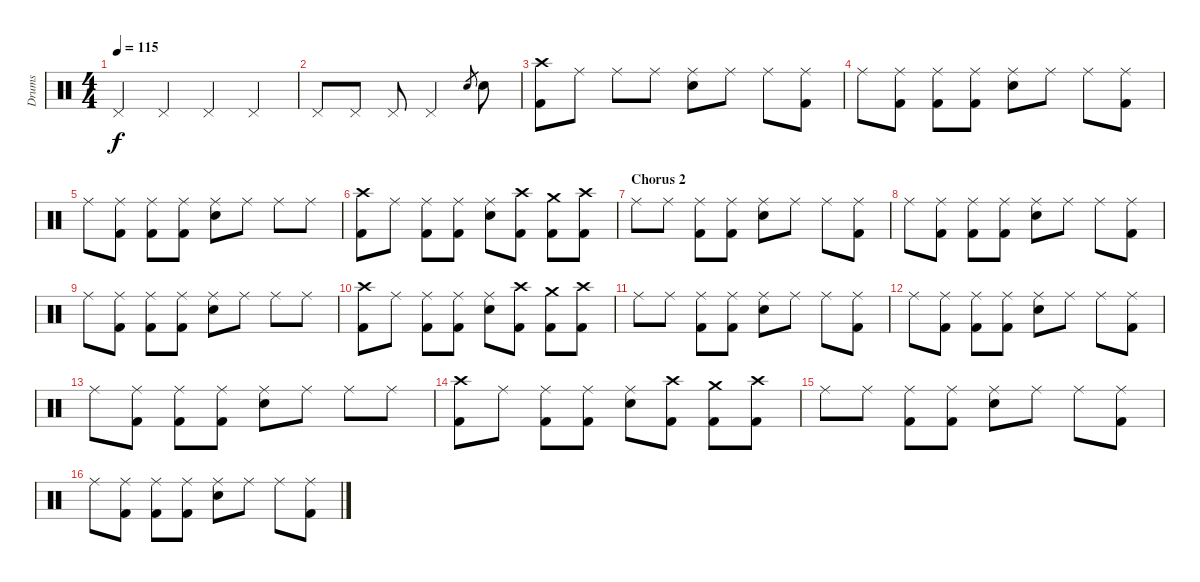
\track ("Drums" "Drums") {instrument percussion}
\staff {score}
\articulation defaults
\ts (4 4)
\tempo 115
\clef neutral
\ks c "Pedal Hi-Hat (hit)".4{dy f} "Pedal Hi-Hat (hit)".4 "Pedal Hi-Hat (hit)".4 "Pedal Hi-Hat (hit)".4
|
"Pedal Hi-Hat (hit)".8 "Pedal Hi-Hat (hit)".8 "Pedal Hi-Hat (hit)".8 "Pedal Hi-Hat (hit)".2 "Snare (hit) 2".8{gr} "Snare (hit) 2".8 |
("Crash high (hit)" "Kick (hit) 2").8 "Ride (middle)".8 "Ride (middle)".8 "Ride (middle)".8 ("Ride (middle)" "Snare (hit) 2").8 "Ride (middle)".8 "Ride (middle)".8 ("Ride (middle)" "Kick (hit) 2").8 |
"Ride (middle)".8 ("Ride (middle)" "Kick (hit) 2").8 ("Ride (middle)" "Kick (hit) 2").8 ("Ride (middle)" "Kick (hit) 2").8 ("Ride (middle)" "Snare (hit) 2").8 "Ride (middle)".8 "Ride (middle)".8 ("Ride (middle)" "Kick (hit) 2").8 |
"Ride (middle)".8 ("Ride (middle)" "Kick (hit) 2").8 ("Ride (middle)" "Kick (hit) 2").8 ("Ride (middle)" "Kick (hit) 2").8 ("Ride (middle)" "Snare (hit) 2").8 "Ride (middle)".8 "Ride (middle)".8 "Ride (middle)".8 |
("Crash high (hit)" "Kick (hit) 2").8 "Ride (middle)".8 ("Ride (middle)" "Kick (hit) 2").8 ("Ride (middle)" "Kick (hit) 2").8 ("Ride (middle)" "Snare (hit) 2").8 ("Crash high (hit)" "Kick (hit) 2").8 ("Crash medium (hit)" "Kick (hit) 2").8 ("Crash high (hit)" "Kick (hit) 2").8 |
\section ("" "Chorus 2")
"Ride (middle)".8 "Ride (middle)".8 ("Ride (middle)" "Kick (hit) 2").8 ("Ride (middle)" "Kick (hit) 2").8 ("Ride (middle)" "Snare (hit) 2").8 "Ride (middle)".8 "Ride (middle)".8 ("Ride (middle)" "Kick (hit) 2").8 |
"Ride (middle)".8 ("Ride (middle)" "Kick (hit) 2").8 ("Ride (middle)" "Kick (hit) 2").8 ("Ride (middle)" "Kick (hit) 2").8 ("Ride (middle)" "Snare (hit) 2").8 "Ride (middle)".8 "Ride (middle)".8 ("Ride (middle)" "Kick (hit) 2").8 |
"Ride (middle)".8 ("Ride (middle)" "Kick (hit) 2").8 ("Ride (middle)" "Kick (hit) 2").8 ("Ride (middle)" "Kick (hit) 2").8 ("Ride (middle)" "Snare (hit) 2").8 "Ride (middle)".8 "Ride (middle)".8 "Ride (middle)".8 |
("Crash high (hit)" "Kick (hit) 2").8 "Ride (middle)".8 ("Ride (middle)" "Kick (hit) 2").8 ("Ride (middle)" "Kick (hit) 2").8 ("Ride (middle)" "Snare (hit) 2").8 ("Crash high (hit)" "Kick (hit) 2").8 ("Crash medium (hit)" "Kick (hit) 2").8 ("Crash high (hit)" "Kick (hit) 2").8 |
"Ride (middle)".8 "Ride (middle)".8 ("Ride (middle)" "Kick (hit) 2").8 ("Ride (middle)" "Kick (hit) 2").8 ("Ride (middle)" "Snare (hit) 2").8 "Ride (middle)".8 "Ride (middle)".8 ("Ride (middle)" "Kick (hit) 2").8 |
"Ride (middle)".8 ("Ride (middle)" "Kick (hit) 2").8 ("Ride (middle)" "Kick (hit) 2").8 ("Ride (middle)" "Kick (hit) 2").8 ("Ride (middle)" "Snare (hit) 2").8 "Ride (middle)".8 "Ride (middle)".8 ("Ride (middle)" "Kick (hit) 2").8 |
"Ride (middle)".8 ("Ride (middle)" "Kick (hit) 2").8 ("Ride (middle)" "Kick (hit) 2").8 ("Ride (middle)" "Kick (hit) 2").8 ("Ride (middle)" "Snare (hit) 2").8 "Ride (middle)".8 "Ride (middle)".8 "Ride (middle)".8 |
("Crash high (hit)" "Kick (hit) 2").8 "Ride (middle)".8 ("Ride (middle)" "Kick (hit) 2").8 ("Ride (middle)" "Kick (hit) 2").8 ("Ride (middle)" "Snare (hit) 2").8 ("Crash high (hit)" "Kick (hit) 2").8 ("Crash medium (hit)" "Kick (hit) 2").8 ("Crash high (hit)" "Kick (hit) 2").8 |
"Ride (middle)".8 "Ride (middle)".8 ("Ride (middle)" "Kick (hit) 2").8 ("Ride (middle)" "Kick (hit) 2").8 ("Ride (middle)" "Snare (hit) 2").8 "Ride (middle)".8 "Ride (middle)".8 ("Ride (middle)" "Kick (hit) 2").8 |
"Ride (middle)".8 ("Ride (middle)" "Kick (hit) 2").8 ("Ride (middle)" "Kick (hit) 2").8 ("Ride (middle)" "Kick (hit) 2").8 ("Ride (middle)" "Snare (hit) 2").8 "Ride (middle)".8 "Ride (middle)".8 ("Ride (middle)" "Kick (hit) 2").8
